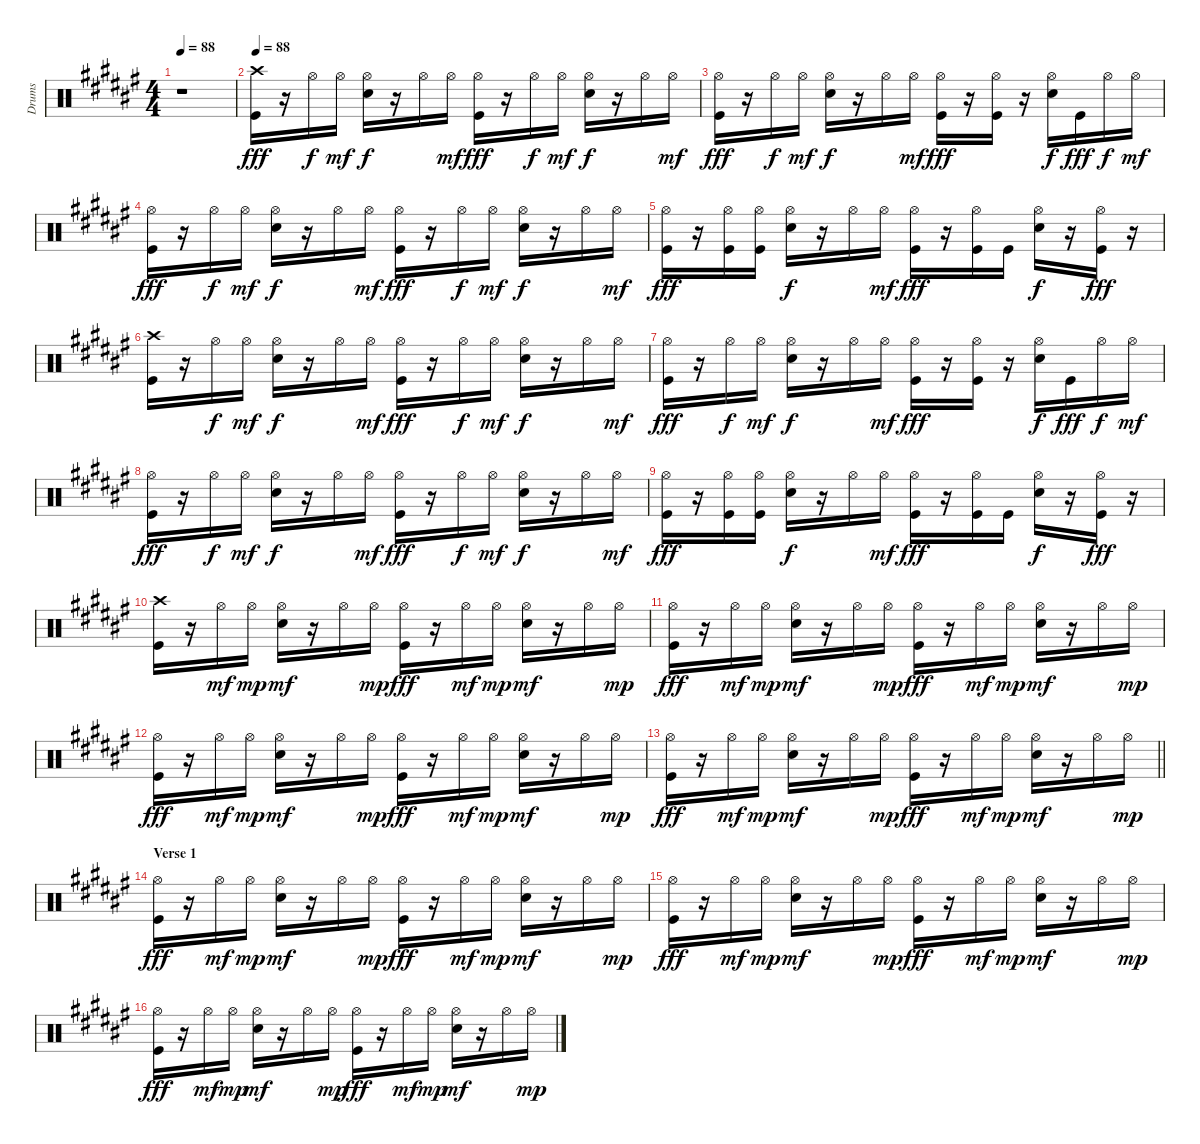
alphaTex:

\track ("Drums" "Drums") {instrument percussion}
\staff {score}
\articulation defaults
\ts (4 4)
\tempo 88
\clef neutral
\ks f#
r.1{dy fff} |
\tempo 88
("Crash high (hit)" "Kick (hit)").16 r.16 "Hi-Hat (open)".16{dy f} "Hi-Hat (open)".16{dy mf} ("Hi-Hat (open)" "Snare (hit) 2").16{dy f} r.16 "Hi-Hat (open)".16 "Hi-Hat (open)".16{dy mf} ("Hi-Hat (open)" "Kick (hit)").16{dy fff} r.16 "Hi-Hat (open)".16{dy f} "Hi-Hat (open)".16{dy mf} ("Hi-Hat (open)" "Snare (hit) 2").16{dy f} r.16 "Hi-Hat (open)".16 "Hi-Hat (open)".16{dy mf} |
("Hi-Hat (open)" "Kick (hit)").16{dy fff} r.16 "Hi-Hat (open)".16{dy f} "Hi-Hat (open)".16{dy mf} ("Hi-Hat (open)" "Snare (hit) 2").16{dy f} r.16 "Hi-Hat (open)".16 "Hi-Hat (open)".16{dy mf} ("Hi-Hat (open)" "Kick (hit)").16{dy fff} r.16 ("Hi-Hat (open)" "Kick (hit)").16 r.16 ("Hi-Hat (open)" "Snare (hit) 2").16{dy f} "Kick (hit)".16{dy fff} "Hi-Hat (open)".16{dy f} "Hi-Hat (open)".16{dy mf} |
("Hi-Hat (open)" "Kick (hit)").16{dy fff} r.16 "Hi-Hat (open)".16{dy f} "Hi-Hat (open)".16{dy mf} ("Hi-Hat (open)" "Snare (hit) 2").16{dy f} r.16 "Hi-Hat (open)".16 "Hi-Hat (open)".16{dy mf} ("Hi-Hat (open)" "Kick (hit)").16{dy fff} r.16 "Hi-Hat (open)".16{dy f} "Hi-Hat (open)".16{dy mf} ("Hi-Hat (open)" "Snare (hit) 2").16{dy f} r.16 "Hi-Hat (open)".16 "Hi-Hat (open)".16{dy mf} |
("Hi-Hat (open)" "Kick (hit)").16{dy fff} r.16 ("Hi-Hat (open)" "Kick (hit)").16 ("Hi-Hat (open)" "Kick (hit)").16 ("Hi-Hat (open)" "Snare (hit) 2").16{dy f} r.16 "Hi-Hat (open)".16 "Hi-Hat (open)".16{dy mf} ("Hi-Hat (open)" "Kick (hit)").16{dy fff} r.16 ("Hi-Hat (open)" "Kick (hit)").16 "Kick (hit)".16 ("Hi-Hat (open)" "Snare (hit) 2").16{dy f} r.16 ("Hi-Hat (open)" "Kick (hit)").16{dy fff} r.16 |
("Crash high (hit)" "Kick (hit)").16 r.16 "Hi-Hat (open)".16{dy f} "Hi-Hat (open)".16{dy mf} ("Hi-Hat (open)" "Snare (hit) 2").16{dy f} r.16 "Hi-Hat (open)".16 "Hi-Hat (open)".16{dy mf} ("Hi-Hat (open)" "Kick (hit)").16{dy fff} r.16 "Hi-Hat (open)".16{dy f} "Hi-Hat (open)".16{dy mf} ("Hi-Hat (open)" "Snare (hit) 2").16{dy f} r.16 "Hi-Hat (open)".16 "Hi-Hat (open)".16{dy mf} |
("Hi-Hat (open)" "Kick (hit)").16{dy fff} r.16 "Hi-Hat (open)".16{dy f} "Hi-Hat (open)".16{dy mf} ("Hi-Hat (open)" "Snare (hit) 2").16{dy f} r.16 "Hi-Hat (open)".16 "Hi-Hat (open)".16{dy mf} ("Hi-Hat (open)" "Kick (hit)").16{dy fff} r.16 ("Hi-Hat (open)" "Kick (hit)").16 r.16 ("Hi-Hat (open)" "Snare (hit) 2").16{dy f} "Kick (hit)".16{dy fff} "Hi-Hat (open)".16{dy f} "Hi-Hat (open)".16{dy mf} |
("Hi-Hat (open)" "Kick (hit)").16{dy fff} r.16 "Hi-Hat (open)".16{dy f} "Hi-Hat (open)".16{dy mf} ("Hi-Hat (open)" "Snare (hit) 2").16{dy f} r.16 "Hi-Hat (open)".16 "Hi-Hat (open)".16{dy mf} ("Hi-Hat (open)" "Kick (hit)").16{dy fff} r.16 "Hi-Hat (open)".16{dy f} "Hi-Hat (open)".16{dy mf} ("Hi-Hat (open)" "Snare (hit) 2").16{dy f} r.16 "Hi-Hat (open)".16 "Hi-Hat (open)".16{dy mf} |
("Hi-Hat (open)" "Kick (hit)").16{dy fff} r.16 ("Hi-Hat (open)" "Kick (hit)").16 ("Hi-Hat (open)" "Kick (hit)").16 ("Hi-Hat (open)" "Snare (hit) 2").16{dy f} r.16 "Hi-Hat (open)".16 "Hi-Hat (open)".16{dy mf} ("Hi-Hat (open)" "Kick (hit)").16{dy fff} r.16 ("Hi-Hat (open)" "Kick (hit)").16 "Kick (hit)".16 ("Hi-Hat (open)" "Snare (hit) 2").16{dy f} r.16 ("Hi-Hat (open)" "Kick (hit)").16{dy fff} r.16 |
("Crash high (hit)" "Kick (hit)").16 r.16 "Hi-Hat (open)".16{dy mf} "Hi-Hat (open)".16{dy mp} ("Hi-Hat (open)" "Snare (hit) 2").16{dy mf} r.16 "Hi-Hat (open)".16 "Hi-Hat (open)".16{dy mp} ("Hi-Hat (open)" "Kick (hit)").16{dy fff} r.16 "Hi-Hat (open)".16{dy mf} "Hi-Hat (open)".16{dy mp} ("Hi-Hat (open)" "Snare (hit) 2").16{dy mf} r.16 "Hi-Hat (open)".16 "Hi-Hat (open)".16{dy mp} |
("Hi-Hat (open)" "Kick (hit)").16{dy fff} r.16 "Hi-Hat (open)".16{dy mf} "Hi-Hat (open)".16{dy mp} ("Hi-Hat (open)" "Snare (hit) 2").16{dy mf} r.16 "Hi-Hat (open)".16 "Hi-Hat (open)".16{dy mp} ("Hi-Hat (open)" "Kick (hit)").16{dy fff} r.16 "Hi-Hat (open)".16{dy mf} "Hi-Hat (open)".16{dy mp} ("Hi-Hat (open)" "Snare (hit) 2").16{dy mf} r.16 "Hi-Hat (open)".16 "Hi-Hat (open)".16{dy mp} |
("Hi-Hat (open)" "Kick (hit)").16{dy fff} r.16 "Hi-Hat (open)".16{dy mf} "Hi-Hat (open)".16{dy mp} ("Hi-Hat (open)" "Snare (hit) 2").16{dy mf} r.16 "Hi-Hat (open)".16 "Hi-Hat (open)".16{dy mp} ("Hi-Hat (open)" "Kick (hit)").16{dy fff} r.16 "Hi-Hat (open)".16{dy mf} "Hi-Hat (open)".16{dy mp} ("Hi-Hat (open)" "Snare (hit) 2").16{dy mf} r.16 "Hi-Hat (open)".16 "Hi-Hat (open)".16{dy mp} |
\barLineRight lightlight
("Hi-Hat (open)" "Kick (hit)").16{dy fff} r.16 "Hi-Hat (open)".16{dy mf} "Hi-Hat (open)".16{dy mp} ("Hi-Hat (open)" "Snare (hit) 2").16{dy mf} r.16 "Hi-Hat (open)".16 "Hi-Hat (open)".16{dy mp} ("Hi-Hat (open)" "Kick (hit)").16{dy fff} r.16 "Hi-Hat (open)".16{dy mf} "Hi-Hat (open)".16{dy mp} ("Hi-Hat (open)" "Snare (hit) 2").16{dy mf} r.16 "Hi-Hat (open)".16 "Hi-Hat (open)".16{dy mp} |
\section ("" "Verse 1")
("Hi-Hat (open)" "Kick (hit)").16{dy fff} r.16 "Hi-Hat (open)".16{dy mf} "Hi-Hat (open)".16{dy mp} ("Hi-Hat (open)" "Snare (hit) 2").16{dy mf} r.16 "Hi-Hat (open)".16 "Hi-Hat (open)".16{dy mp} ("Hi-Hat (open)" "Kick (hit)").16{dy fff} r.16 "Hi-Hat (open)".16{dy mf} "Hi-Hat (open)".16{dy mp} ("Hi-Hat (open)" "Snare (hit) 2").16{dy mf} r.16 "Hi-Hat (open)".16 "Hi-Hat (open)".16{dy mp} |
("Hi-Hat (open)" "Kick (hit)").16{dy fff} r.16 "Hi-Hat (open)".16{dy mf} "Hi-Hat (open)".16{dy mp} ("Hi-Hat (open)" "Snare (hit) 2").16{dy mf} r.16 "Hi-Hat (open)".16 "Hi-Hat (open)".16{dy mp} ("Hi-Hat (open)" "Kick (hit)").16{dy fff} r.16 "Hi-Hat (open)".16{dy mf} "Hi-Hat (open)".16{dy mp} ("Hi-Hat (open)" "Snare (hit) 2").16{dy mf} r.16 "Hi-Hat (open)".16 "Hi-Hat (open)".16{dy mp} |
("Hi-Hat (open)" "Kick (hit)").16{dy fff} r.16 "Hi-Hat (open)".16{dy mf} "Hi-Hat (open)".16{dy mp} ("Hi-Hat (open)" "Snare (hit) 2").16{dy mf} r.16 "Hi-Hat (open)".16 "Hi-Hat (open)".16{dy mp} ("Hi-Hat (open)" "Kick (hit)").16{dy fff} r.16 "Hi-Hat (open)".16{dy mf} "Hi-Hat (open)".16{dy mp} ("Hi-Hat (open)" "Snare (hit) 2").16{dy mf} r.16 "Hi-Hat (open)".16 "Hi-Hat (open)".16{dy mp}
